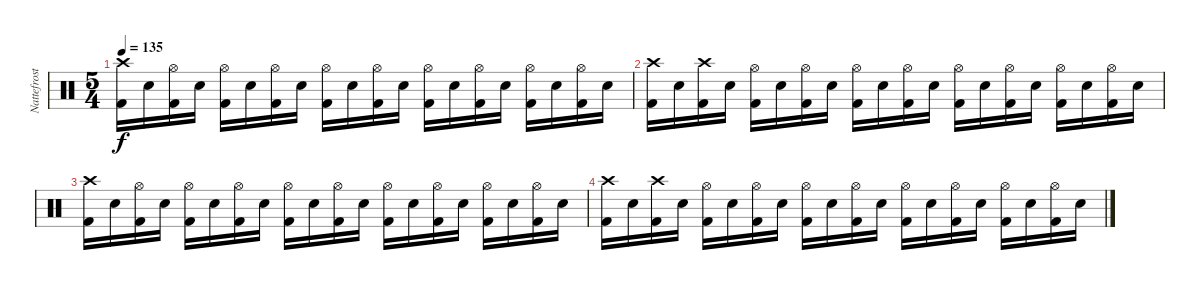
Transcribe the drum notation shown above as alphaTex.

\track ("Nattefrost" "Nattefrost") {instrument percussion}
\staff {score}
\articulation defaults
\ts (5 4)
\tempo 135
\clef neutral
\ks c
("Crash high (hit)" "Kick (hit) 2").16{dy f} "Snare (hit) 2".16 ("Hi-Hat (open)" "Kick (hit) 2").16 "Snare (hit) 2".16 ("Hi-Hat (open)" "Kick (hit) 2").16 "Snare (hit) 2".16 ("Hi-Hat (open)" "Kick (hit) 2").16 "Snare (hit) 2".16 ("Hi-Hat (open)" "Kick (hit) 2").16 "Snare (hit) 2".16 ("Hi-Hat (open)" "Kick (hit) 2").16 "Snare (hit) 2".16 ("Hi-Hat (open)" "Kick (hit) 2").16 "Snare (hit) 2".16 ("Hi-Hat (open)" "Kick (hit) 2").16 "Snare (hit) 2".16 ("Hi-Hat (open)" "Kick (hit) 2").16 "Snare (hit) 2".16 ("Hi-Hat (open)" "Kick (hit) 2").16 "Snare (hit) 2".16 |
("Crash high (hit)" "Kick (hit) 2").16 "Snare (hit) 2".16 ("Crash high (hit)" "Kick (hit) 2").16 "Snare (hit) 2".16 ("Hi-Hat (open)" "Kick (hit) 2").16 "Snare (hit) 2".16 ("Hi-Hat (open)" "Kick (hit) 2").16 "Snare (hit) 2".16 ("Hi-Hat (open)" "Kick (hit) 2").16 "Snare (hit) 2".16 ("Hi-Hat (open)" "Kick (hit) 2").16 "Snare (hit) 2".16 ("Hi-Hat (open)" "Kick (hit) 2").16 "Snare (hit) 2".16 ("Hi-Hat (open)" "Kick (hit) 2").16 "Snare (hit) 2".16 ("Hi-Hat (open)" "Kick (hit) 2").16 "Snare (hit) 2".16 ("Hi-Hat (open)" "Kick (hit) 2").16 "Snare (hit) 2".16 |
("Crash high (hit)" "Kick (hit) 2").16 "Snare (hit) 2".16 ("Hi-Hat (open)" "Kick (hit) 2").16 "Snare (hit) 2".16 ("Hi-Hat (open)" "Kick (hit) 2").16 "Snare (hit) 2".16 ("Hi-Hat (open)" "Kick (hit) 2").16 "Snare (hit) 2".16 ("Hi-Hat (open)" "Kick (hit) 2").16 "Snare (hit) 2".16 ("Hi-Hat (open)" "Kick (hit) 2").16 "Snare (hit) 2".16 ("Hi-Hat (open)" "Kick (hit) 2").16 "Snare (hit) 2".16 ("Hi-Hat (open)" "Kick (hit) 2").16 "Snare (hit) 2".16 ("Hi-Hat (open)" "Kick (hit) 2").16 "Snare (hit) 2".16 ("Hi-Hat (open)" "Kick (hit) 2").16 "Snare (hit) 2".16 |
("Crash high (hit)" "Kick (hit) 2").16 "Snare (hit) 2".16 ("Crash high (hit)" "Kick (hit) 2").16 "Snare (hit) 2".16 ("Hi-Hat (open)" "Kick (hit) 2").16 "Snare (hit) 2".16 ("Hi-Hat (open)" "Kick (hit) 2").16 "Snare (hit) 2".16 ("Hi-Hat (open)" "Kick (hit) 2").16 "Snare (hit) 2".16 ("Hi-Hat (open)" "Kick (hit) 2").16 "Snare (hit) 2".16 ("Hi-Hat (open)" "Kick (hit) 2").16 "Snare (hit) 2".16 ("Hi-Hat (open)" "Kick (hit) 2").16 "Snare (hit) 2".16 ("Hi-Hat (open)" "Kick (hit) 2").16 "Snare (hit) 2".16 ("Hi-Hat (open)" "Kick (hit) 2").16 "Snare (hit) 2".16
